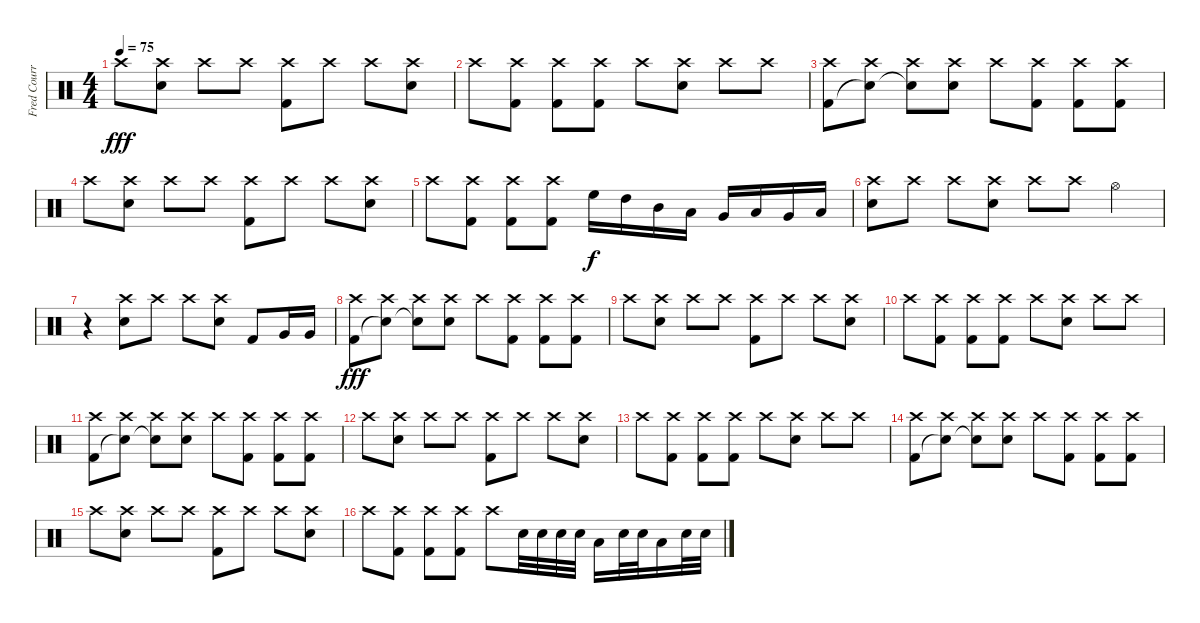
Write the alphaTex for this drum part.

\track ("Fred Courry" "Fred Courr") {instrument percussion}
\staff {score}
\articulation defaults
\ts (4 4)
\tempo 75
\clef neutral
\ks c "Crash high (hit)".8{dy fff}
("Crash high (hit)" "Snare (hit) 2").8 "Crash high (hit)".8 "Crash high (hit)".8 ("Crash high (hit)" "Kick (hit) 2").8 "Crash high (hit)".8 "Crash high (hit)".8 ("Crash high (hit)" "Snare (hit) 2").8 |
"Crash high (hit)".8 ("Crash high (hit)" "Kick (hit) 2").8 ("Crash high (hit)" "Kick (hit) 2").8 ("Crash high (hit)" "Kick (hit) 2").8 "Crash high (hit)".8 ("Crash high (hit)" "Snare (hit) 2").8 "Crash high (hit)".8 "Crash high (hit)".8 |
("Crash high (hit)" "Kick (hit) 2").8 ("Crash high (hit)" "Snare (hit)"{t}).8 ("Crash high (hit)" "Snare (hit)"{t}).8 ("Crash high (hit)" "Snare (hit) 2").8 "Crash high (hit)".8 ("Crash high (hit)" "Kick (hit) 2").8 ("Crash high (hit)" "Kick (hit) 2").8 ("Crash high (hit)" "Kick (hit) 2").8 |
"Crash high (hit)".8 ("Crash high (hit)" "Snare (hit) 2").8 "Crash high (hit)".8 "Crash high (hit)".8 ("Crash high (hit)" "Kick (hit) 2").8 "Crash high (hit)".8 "Crash high (hit)".8 ("Crash high (hit)" "Snare (hit) 2").8 |
"Crash high (hit)".8 ("Crash high (hit)" "Kick (hit) 2").8 ("Crash high (hit)" "Kick (hit) 2").8 ("Crash high (hit)" "Kick (hit) 2").8 "High Floor Tom (hit)".16{dy f} "High Tom (hit)".16 "Mid Tom (hit)".16 "Low Tom (hit)".16 "Very Low Tom (hit)".16 "Low Floor Tom (hit)".16 "Very Low Tom (hit)".16 "Low Floor Tom (hit)".16 |
("Snare (hit) 2" "Crash high (hit)").8 "Crash high (hit)".8 "Crash high (hit)".8 ("Snare (hit) 2" "Crash high (hit)").8 "Crash high (hit)".8 "Crash high (hit)".8 "Hi-Hat (open)".4 |
r.4 ("Snare (hit) 2" "Crash high (hit)").8 "Crash high (hit)".8 "Crash high (hit)".8 ("Snare (hit) 2" "Crash high (hit)").8 "Kick (hit) 2".8 "Very Low Tom (hit)".16 "Very Low Tom (hit)".16 |
("Crash high (hit)" "Kick (hit) 2").8{dy fff} ("Crash high (hit)" "Snare (hit)"{t}).8 ("Crash high (hit)" "Snare (hit)"{t}).8 ("Crash high (hit)" "Snare (hit) 2").8 "Crash high (hit)".8 ("Crash high (hit)" "Kick (hit) 2").8 ("Crash high (hit)" "Kick (hit) 2").8 ("Crash high (hit)" "Kick (hit) 2").8 |
"Crash high (hit)".8 ("Crash high (hit)" "Snare (hit) 2").8 "Crash high (hit)".8 "Crash high (hit)".8 ("Crash high (hit)" "Kick (hit) 2").8 "Crash high (hit)".8 "Crash high (hit)".8 ("Crash high (hit)" "Snare (hit) 2").8 |
"Crash high (hit)".8 ("Crash high (hit)" "Kick (hit) 2").8 ("Crash high (hit)" "Kick (hit) 2").8 ("Crash high (hit)" "Kick (hit) 2").8 "Crash high (hit)".8 ("Crash high (hit)" "Snare (hit) 2").8 "Crash high (hit)".8 "Crash high (hit)".8 |
("Crash high (hit)" "Kick (hit) 2").8 ("Crash high (hit)" "Snare (hit)"{t}).8 ("Crash high (hit)" "Snare (hit)"{t}).8 ("Crash high (hit)" "Snare (hit) 2").8 "Crash high (hit)".8 ("Crash high (hit)" "Kick (hit) 2").8 ("Crash high (hit)" "Kick (hit) 2").8 ("Crash high (hit)" "Kick (hit) 2").8 |
"Crash high (hit)".8 ("Crash high (hit)" "Snare (hit) 2").8 "Crash high (hit)".8 "Crash high (hit)".8 ("Crash high (hit)" "Kick (hit) 2").8 "Crash high (hit)".8 "Crash high (hit)".8 ("Crash high (hit)" "Snare (hit) 2").8 |
"Crash high (hit)".8 ("Crash high (hit)" "Kick (hit) 2").8 ("Crash high (hit)" "Kick (hit) 2").8 ("Crash high (hit)" "Kick (hit) 2").8 "Crash high (hit)".8 ("Crash high (hit)" "Snare (hit) 2").8 "Crash high (hit)".8 "Crash high (hit)".8 |
("Crash high (hit)" "Kick (hit) 2").8 ("Crash high (hit)" "Snare (hit)"{t}).8 ("Crash high (hit)" "Snare (hit)"{t}).8 ("Crash high (hit)" "Snare (hit) 2").8 "Crash high (hit)".8 ("Crash high (hit)" "Kick (hit) 2").8 ("Crash high (hit)" "Kick (hit) 2").8 ("Crash high (hit)" "Kick (hit) 2").8 |
"Crash high (hit)".8 ("Crash high (hit)" "Snare (hit) 2").8 "Crash high (hit)".8 "Crash high (hit)".8 ("Crash high (hit)" "Kick (hit) 2").8 "Crash high (hit)".8 "Crash high (hit)".8 ("Crash high (hit)" "Snare (hit) 2").8 |
"Crash high (hit)".8 ("Crash high (hit)" "Kick (hit) 2").8 ("Crash high (hit)" "Kick (hit) 2").8 ("Crash high (hit)" "Kick (hit) 2").8 "Crash high (hit)".8 "Snare (hit) 2".32 "Snare (hit) 2".32 "Snare (hit) 2".32 "Snare (hit) 2".32 "Low Floor Tom (hit)".16 "Snare (hit) 2".32 "Snare (hit) 2".32 "Low Floor Tom (hit)".16 "Snare (hit) 2".32 "Snare (hit) 2".32
